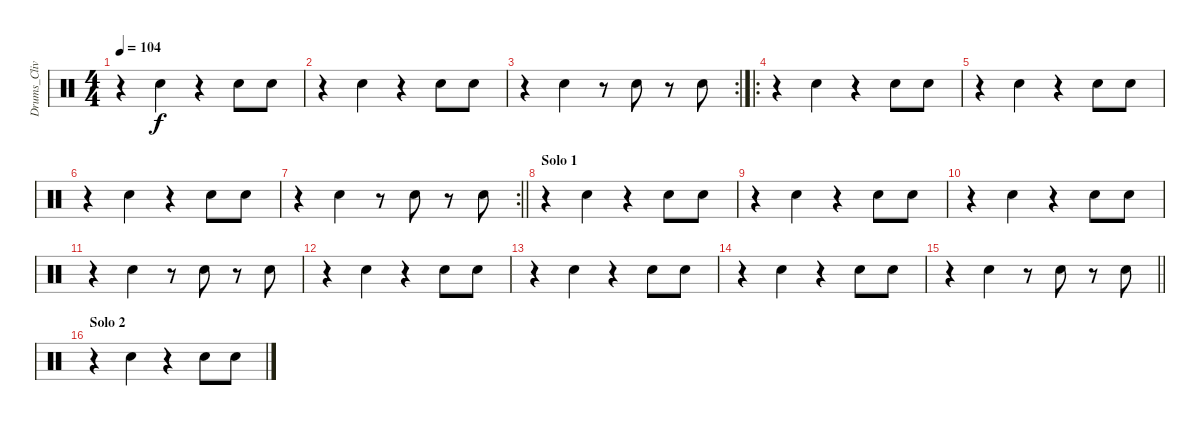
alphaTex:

\track ("Drums_CliveBurr" "Drums_Cliv") {instrument percussion}
\staff {score}
\articulation defaults
\ts (4 4)
\tempo 104
\clef neutral
\ks c
r.4{dy f} "Snare (hit) 2".4 r.4 "Snare (hit) 2".8 "Snare (hit) 2".8 |
r.4 "Snare (hit) 2".4 r.4 "Snare (hit) 2".8 "Snare (hit) 2".8 |
\rc 2
r.4 "Snare (hit) 2".4 r.8 "Snare (hit) 2".8 r.8 "Snare (hit) 2".8 |
\ro
r.4 "Snare (hit) 2".4 r.4 "Snare (hit) 2".8 "Snare (hit) 2".8 |
r.4 "Snare (hit) 2".4 r.4 "Snare (hit) 2".8 "Snare (hit) 2".8 |
r.4 "Snare (hit) 2".4 r.4 "Snare (hit) 2".8 "Snare (hit) 2".8 |
\rc 2
\barLineRight lightlight
r.4 "Snare (hit) 2".4 r.8 "Snare (hit) 2".8 r.8 "Snare (hit) 2".8 |
\section ("" "Solo 1")
r.4 "Snare (hit) 2".4 r.4 "Snare (hit) 2".8 "Snare (hit) 2".8 |
r.4 "Snare (hit) 2".4 r.4 "Snare (hit) 2".8 "Snare (hit) 2".8 |
r.4 "Snare (hit) 2".4 r.4 "Snare (hit) 2".8 "Snare (hit) 2".8 |
r.4 "Snare (hit) 2".4 r.8 "Snare (hit) 2".8 r.8 "Snare (hit) 2".8 |
r.4 "Snare (hit) 2".4 r.4 "Snare (hit) 2".8 "Snare (hit) 2".8 |
r.4 "Snare (hit) 2".4 r.4 "Snare (hit) 2".8 "Snare (hit) 2".8 |
r.4 "Snare (hit) 2".4 r.4 "Snare (hit) 2".8 "Snare (hit) 2".8 |
\barLineRight lightlight
r.4 "Snare (hit) 2".4 r.8 "Snare (hit) 2".8 r.8 "Snare (hit) 2".8 |
\section ("" "Solo 2")
r.4 "Snare (hit) 2".4 r.4 "Snare (hit) 2".8 "Snare (hit) 2".8
